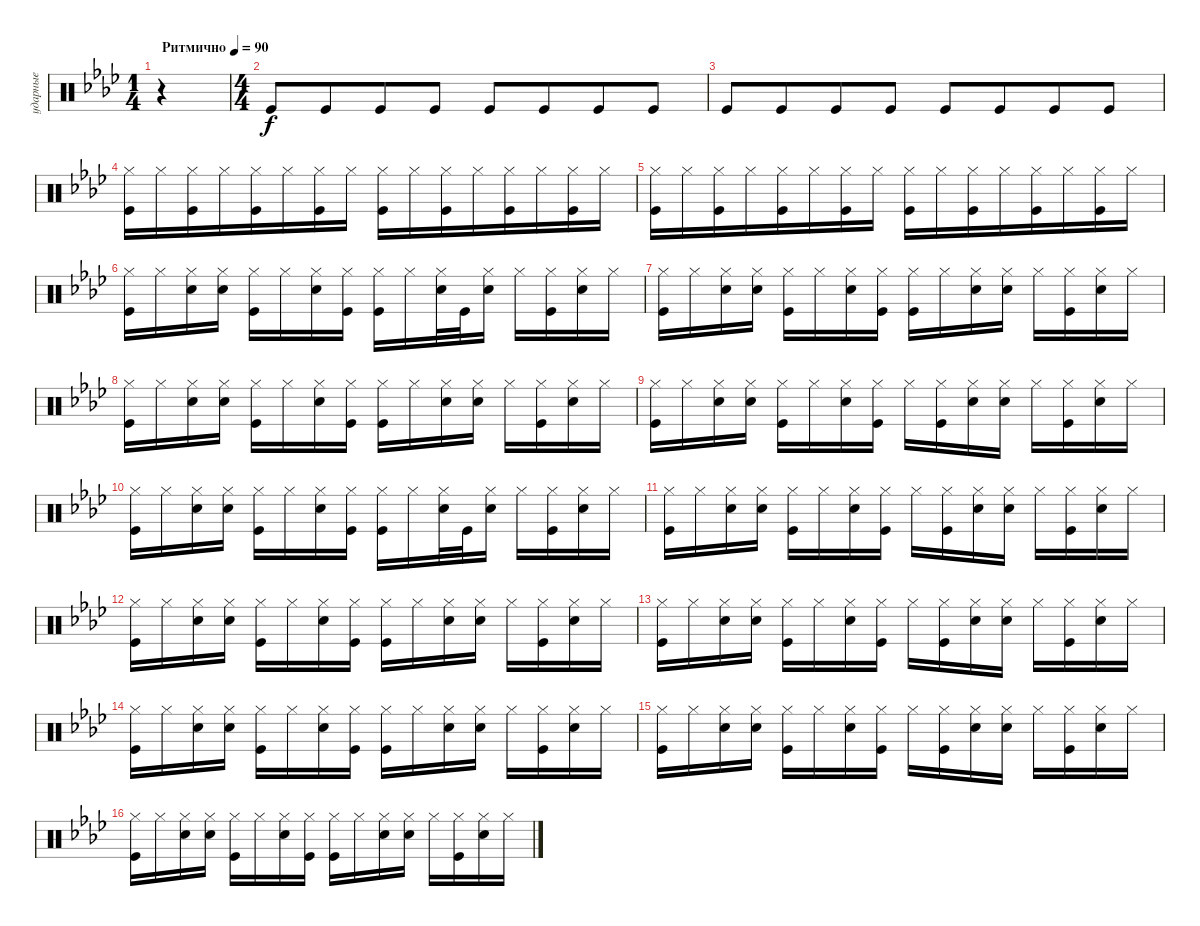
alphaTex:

\track ("ударные" "ударные") {instrument percussion}
\staff {score}
\articulation defaults
\ts (1 4)
\tempo (90 "Ритмично")
\clef neutral
\ks fminor
r.4{dy f} |
\ts (4 4)
"Kick (hit)".8 "Kick (hit)".8{beam merge} "Kick (hit)".8 "Kick (hit)".8 "Kick (hit)".8 "Kick (hit)".8{beam merge} "Kick (hit)".8 "Kick (hit)".8 |
"Kick (hit)".8 "Kick (hit)".8{beam merge} "Kick (hit)".8 "Kick (hit)".8 "Kick (hit)".8 "Kick (hit)".8{beam merge} "Kick (hit)".8 "Kick (hit)".8 |
("Kick (hit)" "Hi-Hat (closed)").16 "Hi-Hat (closed)".16 ("Kick (hit)" "Hi-Hat (closed)").16 "Hi-Hat (closed)".16{beam merge} ("Kick (hit)" "Hi-Hat (closed)").16 "Hi-Hat (closed)".16 ("Kick (hit)" "Hi-Hat (closed)").16 "Hi-Hat (closed)".16 ("Kick (hit)" "Hi-Hat (closed)").16 "Hi-Hat (closed)".16 ("Kick (hit)" "Hi-Hat (closed)").16 "Hi-Hat (closed)".16{beam merge} ("Kick (hit)" "Hi-Hat (closed)").16 "Hi-Hat (closed)".16 ("Kick (hit)" "Hi-Hat (closed)").16 "Hi-Hat (closed)".16 |
("Kick (hit)" "Hi-Hat (closed)").16 "Hi-Hat (closed)".16 ("Kick (hit)" "Hi-Hat (closed)").16 "Hi-Hat (closed)".16{beam merge} ("Kick (hit)" "Hi-Hat (closed)").16 "Hi-Hat (closed)".16 ("Kick (hit)" "Hi-Hat (closed)").16 "Hi-Hat (closed)".16 ("Kick (hit)" "Hi-Hat (closed)").16 "Hi-Hat (closed)".16 ("Kick (hit)" "Hi-Hat (closed)").16 "Hi-Hat (closed)".16{beam merge} ("Kick (hit)" "Hi-Hat (closed)").16 "Hi-Hat (closed)".16 ("Kick (hit)" "Hi-Hat (closed)").16 "Hi-Hat (closed)".16 |
("Kick (hit)" "Hi-Hat (closed)").16 "Hi-Hat (closed)".16 ("Snare (hit) 2" "Hi-Hat (closed)").16 ("Snare (hit) 2" "Hi-Hat (closed)").16 ("Kick (hit)" "Hi-Hat (closed)").16 "Hi-Hat (closed)".16 ("Snare (hit) 2" "Hi-Hat (closed)").16 ("Kick (hit)" "Hi-Hat (closed)").16 ("Kick (hit)" "Hi-Hat (closed)").16 "Hi-Hat (closed)".16 ("Snare (hit) 2" "Hi-Hat (closed)").32 "Kick (hit)".32 ("Snare (hit) 2" "Hi-Hat (closed)").16 "Hi-Hat (closed)".16 ("Hi-Hat (closed)" "Kick (hit)").16 ("Snare (hit) 2" "Hi-Hat (closed)").16 "Hi-Hat (closed)".16 |
("Kick (hit)" "Hi-Hat (closed)").16 "Hi-Hat (closed)".16 ("Snare (hit) 2" "Hi-Hat (closed)").16 ("Snare (hit) 2" "Hi-Hat (closed)").16 ("Kick (hit)" "Hi-Hat (closed)").16 "Hi-Hat (closed)".16 ("Snare (hit) 2" "Hi-Hat (closed)").16 ("Kick (hit)" "Hi-Hat (closed)").16 ("Hi-Hat (closed)" "Kick (hit)").16 "Hi-Hat (closed)".16 ("Snare (hit) 2" "Hi-Hat (closed)").16 ("Snare (hit) 2" "Hi-Hat (closed)").16 "Hi-Hat (closed)".16 ("Hi-Hat (closed)" "Kick (hit)").16 ("Snare (hit) 2" "Hi-Hat (closed)").16 "Hi-Hat (closed)".16 |
("Kick (hit)" "Hi-Hat (closed)").16 "Hi-Hat (closed)".16 ("Snare (hit) 2" "Hi-Hat (closed)").16 ("Snare (hit) 2" "Hi-Hat (closed)").16 ("Kick (hit)" "Hi-Hat (closed)").16 "Hi-Hat (closed)".16 ("Snare (hit) 2" "Hi-Hat (closed)").16 ("Kick (hit)" "Hi-Hat (closed)").16 ("Kick (hit)" "Hi-Hat (closed)").16 "Hi-Hat (closed)".16 ("Snare (hit) 2" "Hi-Hat (closed)").16 ("Snare (hit) 2" "Hi-Hat (closed)").16 "Hi-Hat (closed)".16 ("Hi-Hat (closed)" "Kick (hit)").16 ("Snare (hit) 2" "Hi-Hat (closed)").16 "Hi-Hat (closed)".16 |
("Kick (hit)" "Hi-Hat (closed)").16 "Hi-Hat (closed)".16 ("Snare (hit) 2" "Hi-Hat (closed)").16 ("Snare (hit) 2" "Hi-Hat (closed)").16 ("Kick (hit)" "Hi-Hat (closed)").16 "Hi-Hat (closed)".16 ("Snare (hit) 2" "Hi-Hat (closed)").16 ("Kick (hit)" "Hi-Hat (closed)").16 "Hi-Hat (closed)".16 ("Hi-Hat (closed)" "Kick (hit)").16 ("Snare (hit) 2" "Hi-Hat (closed)").16 ("Snare (hit) 2" "Hi-Hat (closed)").16 "Hi-Hat (closed)".16 ("Hi-Hat (closed)" "Kick (hit)").16 ("Snare (hit) 2" "Hi-Hat (closed)").16 "Hi-Hat (closed)".16 |
("Kick (hit)" "Hi-Hat (closed)").16 "Hi-Hat (closed)".16 ("Snare (hit) 2" "Hi-Hat (closed)").16 ("Snare (hit) 2" "Hi-Hat (closed)").16 ("Kick (hit)" "Hi-Hat (closed)").16 "Hi-Hat (closed)".16 ("Snare (hit) 2" "Hi-Hat (closed)").16 ("Kick (hit)" "Hi-Hat (closed)").16 ("Kick (hit)" "Hi-Hat (closed)").16 "Hi-Hat (closed)".16 ("Snare (hit) 2" "Hi-Hat (closed)").32 "Kick (hit)".32 ("Snare (hit) 2" "Hi-Hat (closed)").16 "Hi-Hat (closed)".16 ("Hi-Hat (closed)" "Kick (hit)").16 ("Snare (hit) 2" "Hi-Hat (closed)").16 "Hi-Hat (closed)".16 |
("Kick (hit)" "Hi-Hat (closed)").16 "Hi-Hat (closed)".16 ("Snare (hit) 2" "Hi-Hat (closed)").16 ("Snare (hit) 2" "Hi-Hat (closed)").16 ("Kick (hit)" "Hi-Hat (closed)").16 "Hi-Hat (closed)".16 ("Snare (hit) 2" "Hi-Hat (closed)").16 ("Kick (hit)" "Hi-Hat (closed)").16 "Hi-Hat (closed)".16 ("Hi-Hat (closed)" "Kick (hit)").16 ("Snare (hit) 2" "Hi-Hat (closed)").16 ("Snare (hit) 2" "Hi-Hat (closed)").16 "Hi-Hat (closed)".16 ("Hi-Hat (closed)" "Kick (hit)").16 ("Snare (hit) 2" "Hi-Hat (closed)").16 "Hi-Hat (closed)".16 |
("Kick (hit)" "Hi-Hat (closed)").16 "Hi-Hat (closed)".16 ("Snare (hit) 2" "Hi-Hat (closed)").16 ("Snare (hit) 2" "Hi-Hat (closed)").16 ("Kick (hit)" "Hi-Hat (closed)").16 "Hi-Hat (closed)".16 ("Snare (hit) 2" "Hi-Hat (closed)").16 ("Kick (hit)" "Hi-Hat (closed)").16 ("Kick (hit)" "Hi-Hat (closed)").16 "Hi-Hat (closed)".16 ("Snare (hit) 2" "Hi-Hat (closed)").16 ("Snare (hit) 2" "Hi-Hat (closed)").16 "Hi-Hat (closed)".16 ("Hi-Hat (closed)" "Kick (hit)").16 ("Snare (hit) 2" "Hi-Hat (closed)").16 "Hi-Hat (closed)".16 |
("Kick (hit)" "Hi-Hat (closed)").16 "Hi-Hat (closed)".16 ("Snare (hit) 2" "Hi-Hat (closed)").16 ("Snare (hit) 2" "Hi-Hat (closed)").16 ("Kick (hit)" "Hi-Hat (closed)").16 "Hi-Hat (closed)".16 ("Snare (hit) 2" "Hi-Hat (closed)").16 ("Kick (hit)" "Hi-Hat (closed)").16 "Hi-Hat (closed)".16 ("Hi-Hat (closed)" "Kick (hit)").16 ("Snare (hit) 2" "Hi-Hat (closed)").16 ("Snare (hit) 2" "Hi-Hat (closed)").16 "Hi-Hat (closed)".16 ("Hi-Hat (closed)" "Kick (hit)").16 ("Snare (hit) 2" "Hi-Hat (closed)").16 "Hi-Hat (closed)".16 |
("Kick (hit)" "Hi-Hat (closed)").16 "Hi-Hat (closed)".16 ("Snare (hit) 2" "Hi-Hat (closed)").16 ("Snare (hit) 2" "Hi-Hat (closed)").16 ("Kick (hit)" "Hi-Hat (closed)").16 "Hi-Hat (closed)".16 ("Snare (hit) 2" "Hi-Hat (closed)").16 ("Kick (hit)" "Hi-Hat (closed)").16 ("Kick (hit)" "Hi-Hat (closed)").16 "Hi-Hat (closed)".16 ("Snare (hit) 2" "Hi-Hat (closed)").16 ("Snare (hit) 2" "Hi-Hat (closed)").16 "Hi-Hat (closed)".16 ("Hi-Hat (closed)" "Kick (hit)").16 ("Snare (hit) 2" "Hi-Hat (closed)").16 "Hi-Hat (closed)".16 |
("Kick (hit)" "Hi-Hat (closed)").16 "Hi-Hat (closed)".16 ("Snare (hit) 2" "Hi-Hat (closed)").16 ("Snare (hit) 2" "Hi-Hat (closed)").16 ("Kick (hit)" "Hi-Hat (closed)").16 "Hi-Hat (closed)".16 ("Snare (hit) 2" "Hi-Hat (closed)").16 ("Kick (hit)" "Hi-Hat (closed)").16 "Hi-Hat (closed)".16 ("Hi-Hat (closed)" "Kick (hit)").16 ("Snare (hit) 2" "Hi-Hat (closed)").16 ("Snare (hit) 2" "Hi-Hat (closed)").16 "Hi-Hat (closed)".16 ("Hi-Hat (closed)" "Kick (hit)").16 ("Snare (hit) 2" "Hi-Hat (closed)").16 "Hi-Hat (closed)".16 |
("Kick (hit)" "Hi-Hat (closed)").16 "Hi-Hat (closed)".16 ("Snare (hit) 2" "Hi-Hat (closed)").16 ("Snare (hit) 2" "Hi-Hat (closed)").16 ("Kick (hit)" "Hi-Hat (closed)").16 "Hi-Hat (closed)".16 ("Snare (hit) 2" "Hi-Hat (closed)").16 ("Kick (hit)" "Hi-Hat (closed)").16 ("Kick (hit)" "Hi-Hat (closed)").16 "Hi-Hat (closed)".16 ("Snare (hit) 2" "Hi-Hat (closed)").16 ("Snare (hit) 2" "Hi-Hat (closed)").16 "Hi-Hat (closed)".16 ("Hi-Hat (closed)" "Kick (hit)").16 ("Snare (hit) 2" "Hi-Hat (closed)").16 "Hi-Hat (closed)".16
